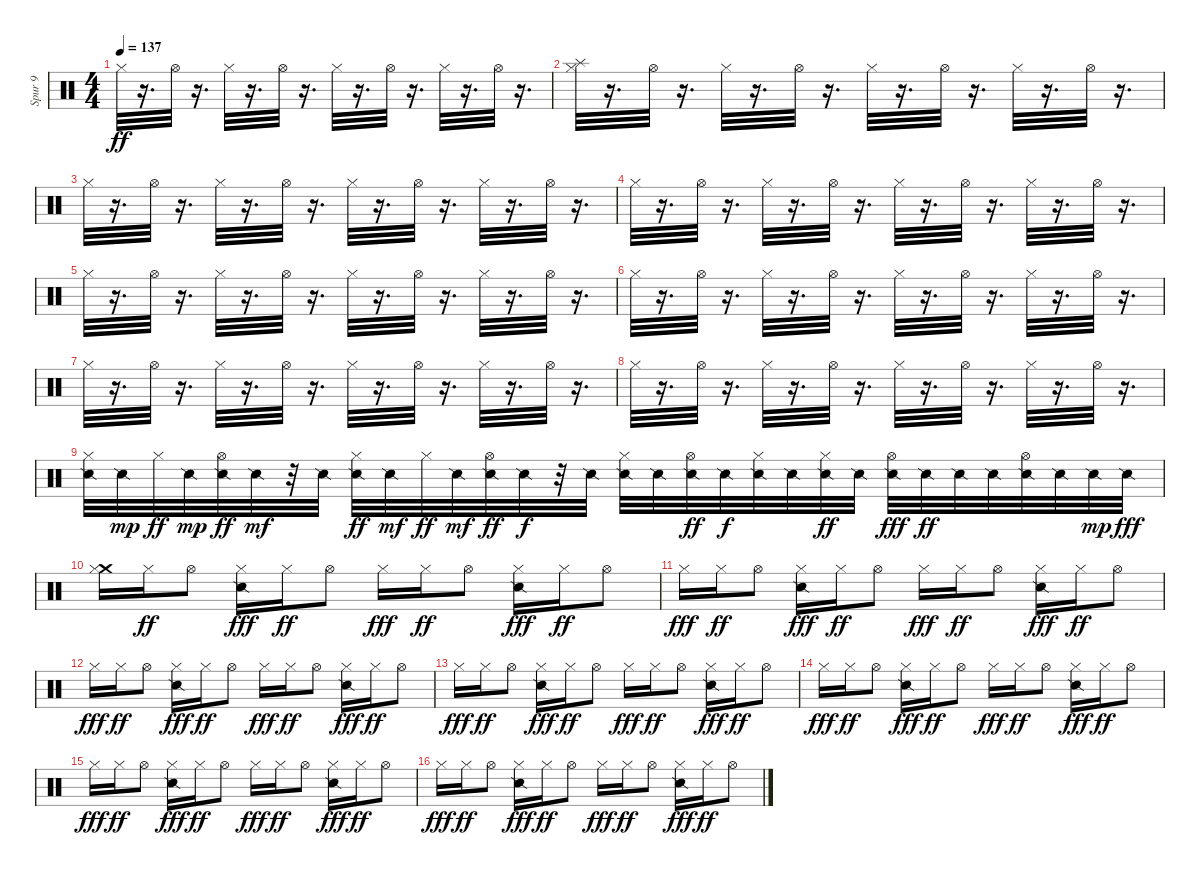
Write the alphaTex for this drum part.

\track ("Spur 9" "Spur 9") {instrument percussion}
\staff {score}
\articulation defaults
\ts (4 4)
\tempo 137
\clef neutral
\ks c "Hi-Hat (closed)".32{dy ff}
r.16{d} "Hi-Hat (open)".32 r.16{d} "Hi-Hat (closed)".32 r.16{d} "Hi-Hat (open)".32 r.16{d} "Hi-Hat (closed)".32 r.16{d} "Hi-Hat (open)".32 r.16{d} "Hi-Hat (closed)".32 r.16{d} "Hi-Hat (open)".32 r.16{d} |
("Splash (hit)" "Hi-Hat (closed)").32 r.16{d} "Hi-Hat (open)".32 r.16{d} "Hi-Hat (closed)".32 r.16{d} "Hi-Hat (open)".32 r.16{d} "Hi-Hat (closed)".32 r.16{d} "Hi-Hat (open)".32 r.16{d} "Hi-Hat (closed)".32 r.16{d} "Hi-Hat (open)".32 r.16{d} |
"Hi-Hat (closed)".32 r.16{d} "Hi-Hat (open)".32 r.16{d} "Hi-Hat (closed)".32 r.16{d} "Hi-Hat (open)".32 r.16{d} "Hi-Hat (closed)".32 r.16{d} "Hi-Hat (open)".32 r.16{d} "Hi-Hat (closed)".32 r.16{d} "Hi-Hat (open)".32 r.16{d} |
"Hi-Hat (closed)".32 r.16{d} "Hi-Hat (open)".32 r.16{d} "Hi-Hat (closed)".32 r.16{d} "Hi-Hat (open)".32 r.16{d} "Hi-Hat (closed)".32 r.16{d} "Hi-Hat (open)".32 r.16{d} "Hi-Hat (closed)".32 r.16{d} "Hi-Hat (open)".32 r.16{d} |
"Hi-Hat (closed)".32 r.16{d} "Hi-Hat (open)".32 r.16{d} "Hi-Hat (closed)".32 r.16{d} "Hi-Hat (open)".32 r.16{d} "Hi-Hat (closed)".32 r.16{d} "Hi-Hat (open)".32 r.16{d} "Hi-Hat (closed)".32 r.16{d} "Hi-Hat (open)".32 r.16{d} |
"Hi-Hat (closed)".32 r.16{d} "Hi-Hat (open)".32 r.16{d} "Hi-Hat (closed)".32 r.16{d} "Hi-Hat (open)".32 r.16{d} "Hi-Hat (closed)".32 r.16{d} "Hi-Hat (open)".32 r.16{d} "Hi-Hat (closed)".32 r.16{d} "Hi-Hat (open)".32 r.16{d} |
"Hi-Hat (closed)".32 r.16{d} "Hi-Hat (open)".32 r.16{d} "Hi-Hat (closed)".32 r.16{d} "Hi-Hat (open)".32 r.16{d} "Hi-Hat (closed)".32 r.16{d} "Hi-Hat (open)".32 r.16{d} "Hi-Hat (closed)".32 r.16{d} "Hi-Hat (open)".32 r.16{d} |
"Hi-Hat (closed)".32 r.16{d} "Hi-Hat (open)".32 r.16{d} "Hi-Hat (closed)".32 r.16{d} "Hi-Hat (open)".32 r.16{d} "Hi-Hat (closed)".32 r.16{d} "Hi-Hat (open)".32 r.16{d} "Hi-Hat (closed)".32 r.16{d} "Hi-Hat (open)".32 r.16{d} |
("Snare (side stick) 2" "Hi-Hat (closed)").32 "Snare (side stick) 2".32{dy mp} "Hi-Hat (closed)".32{dy ff} "Snare (side stick) 2".32{dy mp} ("Snare (side stick) 2" "Hi-Hat (open)").32{dy ff} "Snare (side stick) 2".32{dy mf} r.32 "Snare (side stick) 2".32 ("Snare (side stick) 2" "Hi-Hat (closed)").32{dy ff} "Snare (side stick) 2".32{dy mf} "Hi-Hat (closed)".32{dy ff} "Snare (side stick) 2".32{dy mf} ("Snare (side stick) 2" "Hi-Hat (open)").32{dy ff} "Snare (side stick) 2".32{dy f} r.32 "Snare (side stick) 2".32 ("Snare (side stick) 2" "Hi-Hat (closed)").32 "Snare (side stick) 2".32 ("Snare (side stick) 2" "Hi-Hat (open)").32{dy ff} "Snare (side stick) 2".32{dy f} ("Snare (side stick) 2" "Hi-Hat (closed)").32 "Snare (side stick) 2".32 ("Snare (side stick) 2" "Hi-Hat (closed)").32{dy ff} "Snare (side stick) 2".32 ("Snare (side stick) 2" "Hi-Hat (open)").32{dy fff} "Snare (side stick) 2".32{dy ff} "Snare (side stick) 2".32 "Snare (side stick) 2".32 ("Snare (side stick) 2" "Hi-Hat (open)").32 "Snare (side stick) 2".32 "Snare (side stick) 2".32{dy mp} "Snare (side stick) 2".32{dy fff} |
("Crash medium (hit)" "Hi-Hat (closed)").16 "Hi-Hat (closed)".16{dy ff} "Hi-Hat (open)".8 ("Snare (side stick) 2" "Hi-Hat (closed)").16{dy fff} "Hi-Hat (closed)".16{dy ff} "Hi-Hat (open)".8 "Hi-Hat (closed)".16{dy fff} "Hi-Hat (closed)".16{dy ff} "Hi-Hat (open)".8 ("Snare (side stick) 2" "Hi-Hat (closed)").16{dy fff} "Hi-Hat (closed)".16{dy ff} "Hi-Hat (open)".8 |
"Hi-Hat (closed)".16{dy fff} "Hi-Hat (closed)".16{dy ff} "Hi-Hat (open)".8 ("Snare (side stick) 2" "Hi-Hat (closed)").16{dy fff} "Hi-Hat (closed)".16{dy ff} "Hi-Hat (open)".8 "Hi-Hat (closed)".16{dy fff} "Hi-Hat (closed)".16{dy ff} "Hi-Hat (open)".8 ("Snare (side stick) 2" "Hi-Hat (closed)").16{dy fff} "Hi-Hat (closed)".16{dy ff} "Hi-Hat (open)".8 |
"Hi-Hat (closed)".16{dy fff} "Hi-Hat (closed)".16{dy ff} "Hi-Hat (open)".8 ("Snare (side stick) 2" "Hi-Hat (closed)").16{dy fff} "Hi-Hat (closed)".16{dy ff} "Hi-Hat (open)".8 "Hi-Hat (closed)".16{dy fff} "Hi-Hat (closed)".16{dy ff} "Hi-Hat (open)".8 ("Snare (side stick) 2" "Hi-Hat (closed)").16{dy fff} "Hi-Hat (closed)".16{dy ff} "Hi-Hat (open)".8 |
"Hi-Hat (closed)".16{dy fff} "Hi-Hat (closed)".16{dy ff} "Hi-Hat (open)".8 ("Snare (side stick) 2" "Hi-Hat (closed)").16{dy fff} "Hi-Hat (closed)".16{dy ff} "Hi-Hat (open)".8 "Hi-Hat (closed)".16{dy fff} "Hi-Hat (closed)".16{dy ff} "Hi-Hat (open)".8 ("Snare (side stick) 2" "Hi-Hat (closed)").16{dy fff} "Hi-Hat (closed)".16{dy ff} "Hi-Hat (open)".8 |
"Hi-Hat (closed)".16{dy fff} "Hi-Hat (closed)".16{dy ff} "Hi-Hat (open)".8 ("Snare (side stick) 2" "Hi-Hat (closed)").16{dy fff} "Hi-Hat (closed)".16{dy ff} "Hi-Hat (open)".8 "Hi-Hat (closed)".16{dy fff} "Hi-Hat (closed)".16{dy ff} "Hi-Hat (open)".8 ("Snare (side stick) 2" "Hi-Hat (closed)").16{dy fff} "Hi-Hat (closed)".16{dy ff} "Hi-Hat (open)".8 |
"Hi-Hat (closed)".16{dy fff} "Hi-Hat (closed)".16{dy ff} "Hi-Hat (open)".8 ("Snare (side stick) 2" "Hi-Hat (closed)").16{dy fff} "Hi-Hat (closed)".16{dy ff} "Hi-Hat (open)".8 "Hi-Hat (closed)".16{dy fff} "Hi-Hat (closed)".16{dy ff} "Hi-Hat (open)".8 ("Snare (side stick) 2" "Hi-Hat (closed)").16{dy fff} "Hi-Hat (closed)".16{dy ff} "Hi-Hat (open)".8 |
"Hi-Hat (closed)".16{dy fff} "Hi-Hat (closed)".16{dy ff} "Hi-Hat (open)".8 ("Snare (side stick) 2" "Hi-Hat (closed)").16{dy fff} "Hi-Hat (closed)".16{dy ff} "Hi-Hat (open)".8 "Hi-Hat (closed)".16{dy fff} "Hi-Hat (closed)".16{dy ff} "Hi-Hat (open)".8 ("Snare (side stick) 2" "Hi-Hat (closed)").16{dy fff} "Hi-Hat (closed)".16{dy ff} "Hi-Hat (open)".8
